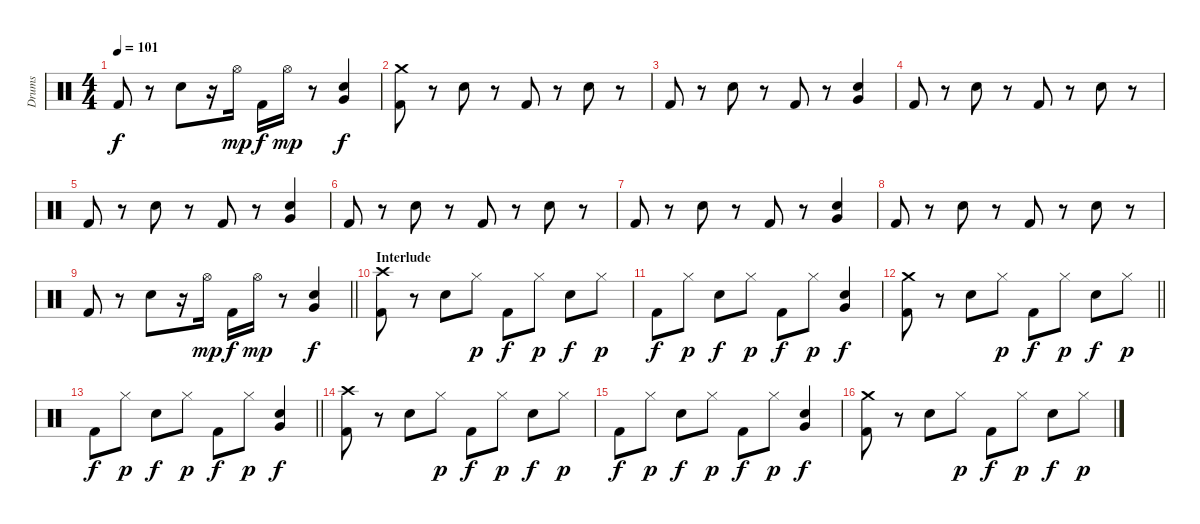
\track ("Drums" "Drums") {instrument percussion}
\staff {score}
\articulation defaults
\ts (4 4)
\tempo 101
\clef neutral
\ks c "Kick (hit) 2".8{dy f}
r.8 "Electric Snare (hit)".8 r.16 "Hi-Hat (open)".16{dy mp} "Kick (hit) 2".16{dy f} "Hi-Hat (open)".16{dy mp} r.8 ("Electric Snare (hit)" "Very Low Tom (hit)").4{dy f} |
("Crash medium (hit)" "Kick (hit) 2").8 r.8 "Electric Snare (hit)".8 r.8 "Kick (hit) 2".8 r.8 "Electric Snare (hit)".8 r.8 |
"Kick (hit) 2".8 r.8 "Electric Snare (hit)".8 r.8 "Kick (hit) 2".8 r.8 ("Electric Snare (hit)" "Very Low Tom (hit)").4 |
"Kick (hit) 2".8 r.8 "Electric Snare (hit)".8 r.8 "Kick (hit) 2".8 r.8 "Electric Snare (hit)".8 r.8 |
"Kick (hit) 2".8 r.8 "Electric Snare (hit)".8 r.8 "Kick (hit) 2".8 r.8 ("Electric Snare (hit)" "Very Low Tom (hit)").4 |
"Kick (hit) 2".8 r.8 "Electric Snare (hit)".8 r.8 "Kick (hit) 2".8 r.8 "Electric Snare (hit)".8 r.8 |
"Kick (hit) 2".8 r.8 "Electric Snare (hit)".8 r.8 "Kick (hit) 2".8 r.8 ("Electric Snare (hit)" "Very Low Tom (hit)").4 |
"Kick (hit) 2".8 r.8 "Electric Snare (hit)".8 r.8 "Kick (hit) 2".8 r.8 "Electric Snare (hit)".8 r.8 |
\barLineRight lightlight "Kick (hit) 2".8
r.8 "Electric Snare (hit)".8 r.16 "Hi-Hat (open)".16{dy mp} "Kick (hit) 2".16{dy f} "Hi-Hat (open)".16{dy mp} r.8 ("Electric Snare (hit)" "Very Low Tom (hit)").4{dy f} |
\section ("" "Interlude")
("Crash high (hit)" "Kick (hit) 2").8 r.8 "Electric Snare (hit)".8 "Hi-Hat (closed)".8{dy p} "Kick (hit) 2".8{dy f} "Hi-Hat (closed)".8{dy p} "Electric Snare (hit)".8{dy f} "Hi-Hat (closed)".8{dy p} |
"Kick (hit) 2".8{dy f} "Hi-Hat (closed)".8{dy p} "Electric Snare (hit)".8{dy f} "Hi-Hat (closed)".8{dy p} "Kick (hit) 2".8{dy f} "Hi-Hat (closed)".8{dy p} ("Electric Snare (hit)" "Very Low Tom (hit)").4{dy f} |
\barLineRight lightlight
("Crash medium (hit)" "Kick (hit) 2").8 r.8 "Electric Snare (hit)".8 "Hi-Hat (closed)".8{dy p} "Kick (hit) 2".8{dy f} "Hi-Hat (closed)".8{dy p} "Electric Snare (hit)".8{dy f} "Hi-Hat (closed)".8{dy p} |
\barLineRight lightlight "Kick (hit) 2".8{dy f} "Hi-Hat (closed)".8{dy p} "Electric Snare (hit)".8{dy f} "Hi-Hat (closed)".8{dy p} "Kick (hit) 2".8{dy f} "Hi-Hat (closed)".8{dy p}
("Electric Snare (hit)" "Very Low Tom (hit)").4{dy f} |
("Crash high (hit)" "Kick (hit) 2").8 r.8 "Electric Snare (hit)".8 "Hi-Hat (closed)".8{dy p} "Kick (hit) 2".8{dy f} "Hi-Hat (closed)".8{dy p} "Electric Snare (hit)".8{dy f} "Hi-Hat (closed)".8{dy p} |
"Kick (hit) 2".8{dy f} "Hi-Hat (closed)".8{dy p} "Electric Snare (hit)".8{dy f} "Hi-Hat (closed)".8{dy p} "Kick (hit) 2".8{dy f} "Hi-Hat (closed)".8{dy p} ("Electric Snare (hit)" "Very Low Tom (hit)").4{dy f} |
("Crash medium (hit)" "Kick (hit) 2").8 r.8 "Electric Snare (hit)".8 "Hi-Hat (closed)".8{dy p} "Kick (hit) 2".8{dy f} "Hi-Hat (closed)".8{dy p} "Electric Snare (hit)".8{dy f} "Hi-Hat (closed)".8{dy p}
